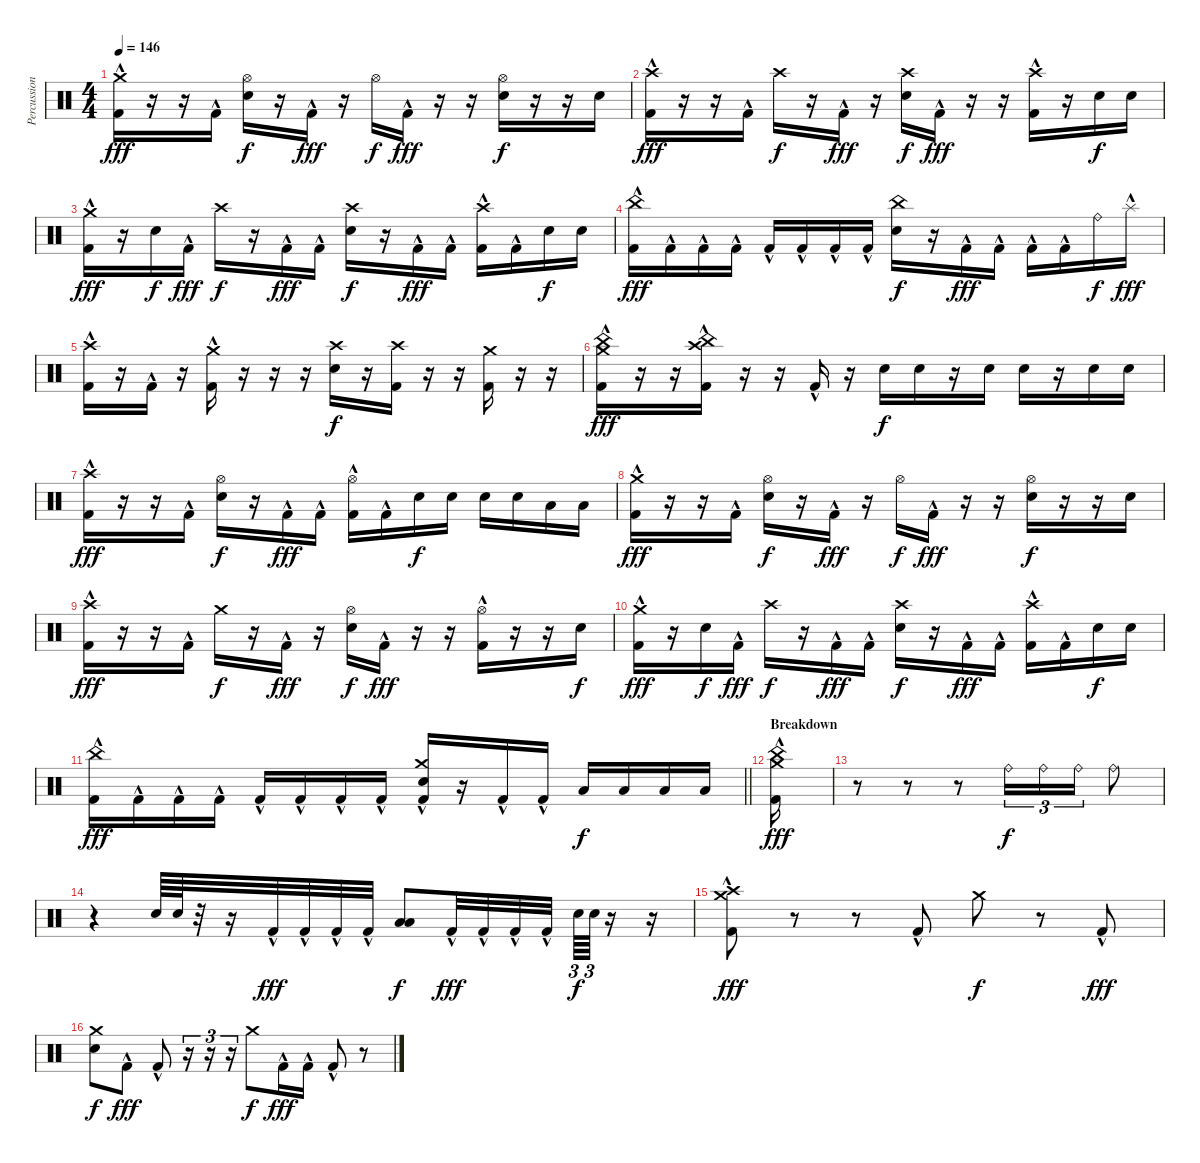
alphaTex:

\track ("Percussion" "Percussion") {instrument percussion}
\staff {score}
\articulation defaults
\ts (4 4)
\tempo 146
\clef neutral
\ks aminor
("Kick (hit) 2"{hac} "Crash medium (hit)").16{dy fff} r.16 r.16 "Kick (hit) 2"{hac}.16 ("Hi-Hat (open)" "Electric Snare (hit)").16{dy f} r.16 "Kick (hit) 2"{hac}.16{dy fff} r.16 "Hi-Hat (open)".16{dy f} "Kick (hit) 2"{hac}.16{dy fff} r.16 r.16 ("Hi-Hat (open)" "Electric Snare (hit)").16{dy f} r.16 r.16 "Electric Snare (hit)".16 |
("Kick (hit) 2"{hac} "Crash high (hit)").16{dy fff} r.16 r.16 "Kick (hit) 2"{hac}.16 "Crash high (hit)".16{dy f} r.16 "Kick (hit) 2"{hac}.16{dy fff} r.16 ("Electric Snare (hit)" "Crash high (hit)").16{dy f} "Kick (hit) 2"{hac}.16{dy fff} r.16 r.16 ("Kick (hit) 2"{hac} "Crash high (hit)").16 r.16 "Electric Snare (hit)".16{dy f} "Electric Snare (hit)".16 |
("Kick (hit) 2"{hac} "Crash medium (hit)").16{dy fff} r.16 "Electric Snare (hit)".16{dy f} "Kick (hit) 2"{hac}.16{dy fff} "Crash high (hit)".16{dy f} r.16 "Kick (hit) 2"{hac}.16{dy fff} "Kick (hit) 2"{hac}.16 ("Electric Snare (hit)" "Crash high (hit)").16{dy f} r.16 "Kick (hit) 2"{hac}.16{dy fff} "Kick (hit) 2"{hac}.16 ("Kick (hit) 2"{hac} "Crash high (hit)").16 "Kick (hit) 2"{hac}.16 "Electric Snare (hit)".16{dy f} "Electric Snare (hit)".16 |
("Kick (hit) 2"{hac} "China (hit)").16{dy fff} "Kick (hit) 2"{hac}.16 "Kick (hit) 2"{hac}.16 "Kick (hit) 2"{hac}.16 "Kick (hit) 2"{hac}.16 "Kick (hit) 2"{hac}.16 "Kick (hit) 2"{hac}.16 "Kick (hit) 2"{hac}.16 ("China (hit)" "Electric Snare (hit)").16{dy f} r.16 "Kick (hit) 2"{hac}.16{dy fff} "Kick (hit) 2"{hac}.16 "Kick (hit) 2"{hac}.16 "Kick (hit) 2"{hac}.16 "Ride (bell)".16{dy f} "Splash (hit)"{hac}.16{dy fff} |
("Kick (hit) 2"{hac} "Crash high (hit)").16 r.16 "Kick (hit) 2"{hac}.16 r.16 ("Kick (hit) 2"{hac} "Crash medium (hit)").16 r.16 r.16 r.16 ("Electric Snare (hit)" "Crash high (hit)").16{dy f} r.16 ("Kick (hit) 2" "Crash high (hit)").16 r.16 r.16 ("Kick (hit) 2" "Crash medium (hit)").16 r.16 r.16 |
("Kick (hit) 2"{hac} "Crash medium (hit)" "China (hit)").16{dy fff} r.16 r.16 ("Kick (hit) 2"{hac} "Crash high (hit)" "China (hit)").16 r.16 r.16 "Kick (hit) 2"{hac}.16 r.16 "Electric Snare (hit)".16{dy f} "Electric Snare (hit)".16 r.16 "Electric Snare (hit)".16 "Electric Snare (hit)".16 r.16 "Electric Snare (hit)".16 "Electric Snare (hit)".16 |
("Kick (hit) 2"{hac} "Crash high (hit)").16{dy fff} r.16 r.16 "Kick (hit) 2"{hac}.16 ("Hi-Hat (open)" "Electric Snare (hit)").16{dy f} r.16 "Kick (hit) 2"{hac}.16{dy fff} "Kick (hit) 2"{hac}.16 ("Kick (hit) 2"{hac} "Hi-Hat (open)").16 "Kick (hit) 2"{hac}.16 "Electric Snare (hit)".16{dy f} "Electric Snare (hit)".16 "Electric Snare (hit)".16 "Electric Snare (hit)".16 "Low Tom (hit)".16 "Low Tom (hit)".16 |
("Kick (hit) 2"{hac} "Crash medium (hit)").16{dy fff} r.16 r.16 "Kick (hit) 2"{hac}.16 ("Hi-Hat (open)" "Electric Snare (hit)").16{dy f} r.16 "Kick (hit) 2"{hac}.16{dy fff} r.16 "Hi-Hat (open)".16{dy f} "Kick (hit) 2"{hac}.16{dy fff} r.16 r.16 ("Hi-Hat (open)" "Electric Snare (hit)").16{dy f} r.16 r.16 "Electric Snare (hit)".16 |
("Kick (hit) 2"{hac} "Crash high (hit)").16{dy fff} r.16 r.16 "Kick (hit) 2"{hac}.16 "Crash medium (hit)".16{dy f} r.16 "Kick (hit) 2"{hac}.16{dy fff} r.16 ("Electric Snare (hit)" "Hi-Hat (open)").16{dy f} "Kick (hit) 2"{hac}.16{dy fff} r.16 r.16 ("Kick (hit) 2"{hac} "Hi-Hat (open)").16 r.16 r.16 "Electric Snare (hit)".16{dy f} |
("Kick (hit) 2"{hac} "Crash medium (hit)").16{dy fff} r.16 "Electric Snare (hit)".16{dy f} "Kick (hit) 2"{hac}.16{dy fff} "Crash high (hit)".16{dy f} r.16 "Kick (hit) 2"{hac}.16{dy fff} "Kick (hit) 2"{hac}.16 ("Electric Snare (hit)" "Crash high (hit)").16{dy f} r.16 "Kick (hit) 2"{hac}.16{dy fff} "Kick (hit) 2"{hac}.16 ("Kick (hit) 2"{hac} "Crash high (hit)").16 "Kick (hit) 2"{hac}.16 "Electric Snare (hit)".16{dy f} "Electric Snare (hit)".16 |
\barLineRight lightlight
("Kick (hit) 2"{hac} "China (hit)").16{dy fff} "Kick (hit) 2"{hac}.16 "Kick (hit) 2"{hac}.16 "Kick (hit) 2"{hac}.16 "Kick (hit) 2"{hac}.16 "Kick (hit) 2"{hac}.16 "Kick (hit) 2"{hac}.16 "Kick (hit) 2"{hac}.16 ("Kick (hit) 2"{hac} "Crash medium (hit)" "Electric Snare (hit)").16 r.16 "Kick (hit) 2"{hac}.16 "Kick (hit) 2"{hac}.16 "Low Tom (hit)".16{dy f} "Low Tom (hit)".16 "Low Floor Tom (hit)".16 "Low Floor Tom (hit)".16 |
\section ("" "Breakdown")
("Kick (hit) 2"{hac} "Crash medium (hit)" "China (hit)").16{dy fff} |
r.8 r.8 r.8 "Ride (bell)".16{tu (3 2) dy f} "Ride (bell)".16{tu (3 2)} "Ride (bell)".16{tu (3 2)} "Ride (bell)".8 |
r.4 "Electric Snare (hit)".64 "Electric Snare (hit)".64 r.32 r.16 "Kick (hit) 2"{hac}.32{dy fff} "Kick (hit) 2"{hac}.32 "Kick (hit) 2"{hac}.32 "Kick (hit) 2"{hac}.32 ("Low Tom (hit)" "Low Floor Tom (hit)").8{dy f} "Kick (hit) 2"{hac}.32{dy fff} "Kick (hit) 2"{hac}.32 "Kick (hit) 2"{hac}.32 "Kick (hit) 2"{hac}.32 "Electric Snare (hit)".64{tu (3 2) dy f} "Electric Snare (hit)".64{tu (3 2)} r.16 r.16 |
("Crash medium (hit)" "Crash high (hit)" "Kick (hit) 2"{hac}).8{dy fff} r.8 r.8 "Kick (hit) 2"{hac}.8 "Crash medium (hit)".8{dy f} r.8 "Kick (hit) 2"{hac}.8{dy fff} |
("Crash medium (hit)" "Electric Snare (hit)").8{dy f} "Kick (hit) 2"{hac}.8{dy fff} "Kick (hit) 2"{hac}.8 r.16{tu (3 2)} r.16{tu (3 2)} r.16{tu (3 2)} "Crash medium (hit)".8{dy f} "Kick (hit) 2"{hac}.16{dy fff} "Kick (hit) 2"{hac}.16 "Kick (hit) 2"{hac}.8 r.8
